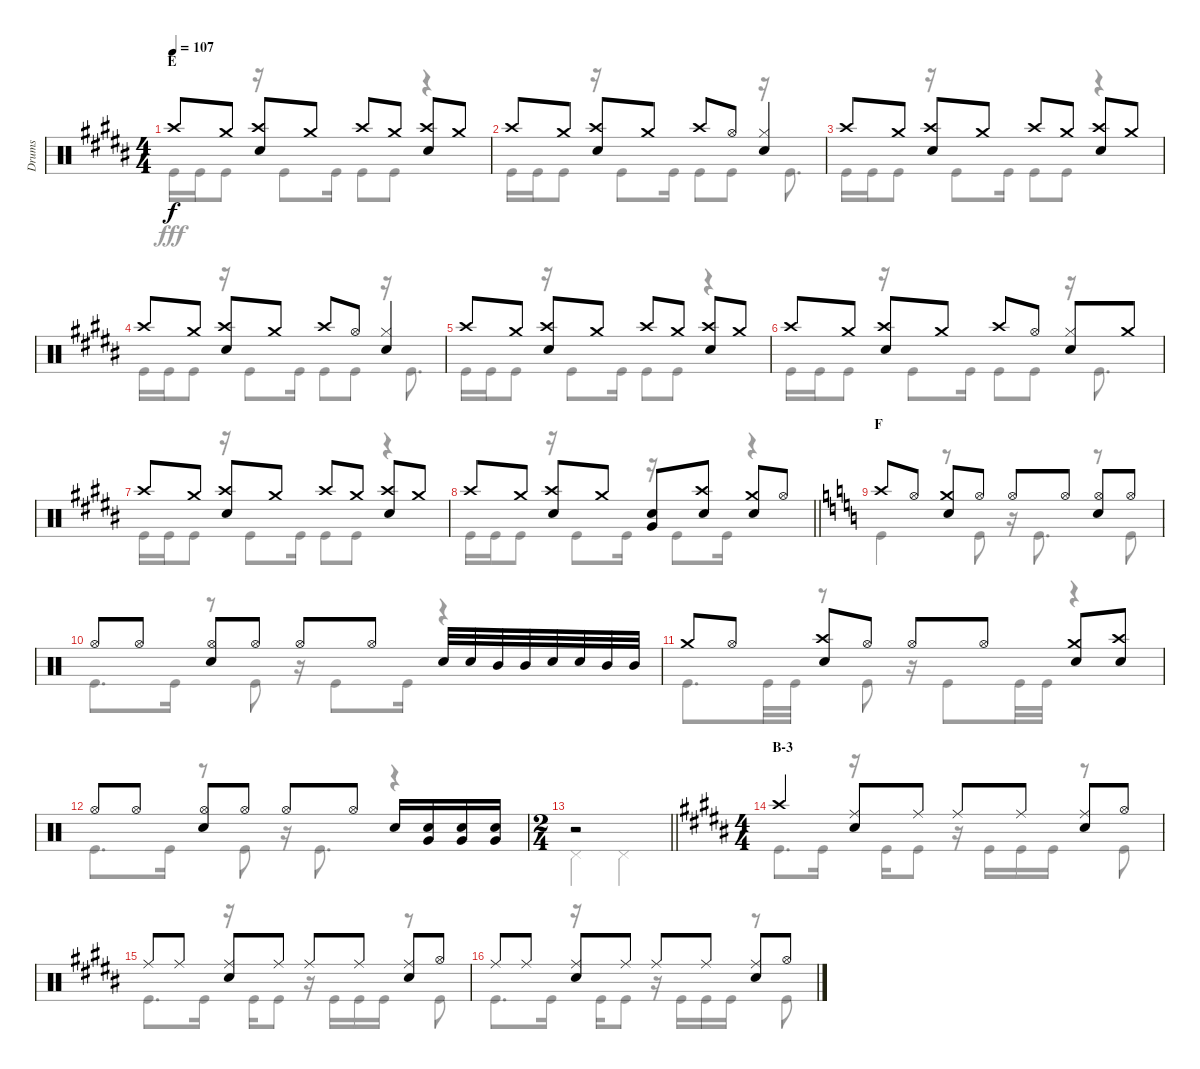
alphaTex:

\track ("Drums" "Drums") {instrument percussion}
\staff {score}
\articulation defaults
\voice
\ts (4 4)
\section ("" "E")
\tempo 107
\clef neutral
\ks b "Crash high (hit)".8{dy f} "Crash medium (hit)".8
("Crash high (hit)" "Snare (hit) 2").8 "Crash medium (hit)".8 "Crash high (hit)".8 "Crash medium (hit)".8 ("Crash high (hit)" "Snare (hit) 2").8 "Crash medium (hit)".8 |
"Crash high (hit)".8 "Crash medium (hit)".8 ("Crash high (hit)" "Snare (hit) 2").8 "Crash medium (hit)".8 "Crash high (hit)".8 "Hi-Hat (open)".8 ("Hi-Hat (closed)" "Snare (hit) 2").4 |
"Crash high (hit)".8 "Crash medium (hit)".8 ("Crash high (hit)" "Snare (hit) 2").8 "Crash medium (hit)".8 "Crash high (hit)".8 "Crash medium (hit)".8 ("Crash high (hit)" "Snare (hit) 2").8 "Crash medium (hit)".8 |
"Crash high (hit)".8 "Crash medium (hit)".8 ("Crash high (hit)" "Snare (hit) 2").8 "Crash medium (hit)".8 "Crash high (hit)".8 "Hi-Hat (open)".8 ("Hi-Hat (closed)" "Snare (hit) 2").4 |
"Crash high (hit)".8 "Crash medium (hit)".8 ("Crash high (hit)" "Snare (hit) 2").8 "Crash medium (hit)".8 "Crash high (hit)".8 "Crash medium (hit)".8 ("Crash high (hit)" "Snare (hit) 2").8 "Crash medium (hit)".8 |
"Crash high (hit)".8 "Crash medium (hit)".8 ("Crash high (hit)" "Snare (hit) 2").8 "Crash medium (hit)".8 "Crash high (hit)".8 "Hi-Hat (open)".8 ("Hi-Hat (closed)" "Snare (hit) 2").8 "Crash medium (hit)".8 |
"Crash high (hit)".8 "Crash medium (hit)".8 ("Crash high (hit)" "Snare (hit) 2").8 "Crash medium (hit)".8 "Crash high (hit)".8 "Crash medium (hit)".8 ("Crash high (hit)" "Snare (hit) 2").8 "Crash medium (hit)".8 |
\barLineRight lightlight "Crash high (hit)".8 "Crash medium (hit)".8
("Crash high (hit)" "Snare (hit) 2").8 "Crash medium (hit)".8 ("Snare (hit) 2" "Very Low Tom (hit)").8 ("Crash high (hit)" "Snare (hit) 2").8 ("Crash medium (hit)" "Snare (hit) 2").8 "Hi-Hat (open)".8 |
\section ("" "F")
\ks c "Crash high (hit)".8 "Hi-Hat (open)".8
("Crash medium (hit)" "Snare (hit) 2").8 "Hi-Hat (open)".8 "Hi-Hat (open)".8 "Hi-Hat (open)".8 ("Hi-Hat (open)" "Snare (hit) 2").8 "Hi-Hat (open)".8 |
"Hi-Hat (open)".8 "Hi-Hat (open)".8 ("Hi-Hat (open)" "Snare (hit) 2").8 "Hi-Hat (open)".8 "Hi-Hat (open)".8 "Hi-Hat (open)".8 "Snare (hit) 2".32 "Snare (hit) 2".32 "Mid Tom (hit)".32 "Mid Tom (hit)".32 "Snare (hit) 2".32 "Snare (hit) 2".32 "Mid Tom (hit)".32 "Mid Tom (hit)".32 |
"Crash medium (hit)".8 "Hi-Hat (open)".8 ("Crash high (hit)" "Snare (hit) 2").8 "Hi-Hat (open)".8 "Hi-Hat (open)".8 "Hi-Hat (open)".8 ("Crash medium (hit)" "Snare (hit) 2").8 ("Crash high (hit)" "Snare (hit) 2").8 |
"Hi-Hat (open)".8 "Hi-Hat (open)".8 ("Hi-Hat (open)" "Snare (hit) 2").8 "Hi-Hat (open)".8 "Hi-Hat (open)".8 "Hi-Hat (open)".8 "Snare (hit) 2".16 ("Snare (hit) 2" "Very Low Tom (hit)").16 ("Snare (hit) 2" "Very Low Tom (hit)").16 ("Snare (hit) 2" "Very Low Tom (hit)").16 |
\ts (2 4)
\barLineRight lightlight
r.2 |
\ts (4 4)
\section ("" "B-3")
\ks b "Crash high (hit)".4
("Ride (middle)" "Snare (hit) 2").8 "Ride (middle)".8 "Ride (middle)".8 "Ride (middle)".8 ("Ride (middle)" "Snare (hit) 2").8 "Hi-Hat (open)".8 |
"Ride (middle)".8 "Ride (middle)".8 ("Ride (middle)" "Snare (hit) 2").8 "Ride (middle)".8 "Ride (middle)".8 "Ride (middle)".8 ("Ride (middle)" "Snare (hit) 2").8 "Hi-Hat (open)".8 |
"Ride (middle)".8 "Ride (middle)".8 ("Ride (middle)" "Snare (hit) 2").8 "Ride (middle)".8 "Ride (middle)".8 "Ride (middle)".8 ("Ride (middle)" "Snare (hit) 2").8 "Hi-Hat (open)".8
\voice
\clef neutral
\ottava regular
\simile none
\ks b "Kick (hit)".16{dy fff} "Kick (hit)".16 "Kick (hit)".8
r.16 "Kick (hit)".8 "Kick (hit)".16 "Kick (hit)".8 "Kick (hit)".8 r.4 |
"Kick (hit)".16 "Kick (hit)".16 "Kick (hit)".8 r.16 "Kick (hit)".8 "Kick (hit)".16 "Kick (hit)".8 "Kick (hit)".8 r.16 "Kick (hit)".8{d} |
"Kick (hit)".16 "Kick (hit)".16 "Kick (hit)".8 r.16 "Kick (hit)".8 "Kick (hit)".16 "Kick (hit)".8 "Kick (hit)".8 r.4 |
"Kick (hit)".16 "Kick (hit)".16 "Kick (hit)".8 r.16 "Kick (hit)".8 "Kick (hit)".16 "Kick (hit)".8 "Kick (hit)".8 r.16 "Kick (hit)".8{d} |
"Kick (hit)".16 "Kick (hit)".16 "Kick (hit)".8 r.16 "Kick (hit)".8 "Kick (hit)".16 "Kick (hit)".8 "Kick (hit)".8 r.4 |
"Kick (hit)".16 "Kick (hit)".16 "Kick (hit)".8 r.16 "Kick (hit)".8 "Kick (hit)".16 "Kick (hit)".8 "Kick (hit)".8 r.16 "Kick (hit)".8{d} |
"Kick (hit)".16 "Kick (hit)".16 "Kick (hit)".8 r.16 "Kick (hit)".8 "Kick (hit)".16 "Kick (hit)".8 "Kick (hit)".8 r.4 |
\barLineRight lightlight "Kick (hit)".16 "Kick (hit)".16 "Kick (hit)".8
r.16 "Kick (hit)".8 "Kick (hit)".16 r.16 "Kick (hit)".8 "Kick (hit)".16 r.4 |
\ks c "Kick (hit)".4
r.8 "Kick (hit)".8 r.16 "Kick (hit)".8{d} r.8 "Kick (hit)".8 |
"Kick (hit)".8{d} "Kick (hit)".16 r.8 "Kick (hit)".8 r.16 "Kick (hit)".8 "Kick (hit)".16 r.4 |
"Kick (hit)".8{d} "Kick (hit)".32 "Kick (hit)".32 r.8 "Kick (hit)".8 r.16 "Kick (hit)".8 "Kick (hit)".32 "Kick (hit)".32 r.4 |
"Kick (hit)".8{d} "Kick (hit)".16 r.8 "Kick (hit)".8 r.16 "Kick (hit)".8{d} r.4 |
\barLineRight lightlight "Pedal Hi-Hat (hit)".4 "Pedal Hi-Hat (hit)".4
|
\ks b "Kick (hit)".8{d} "Kick (hit)".16
r.16 "Kick (hit)".16 "Kick (hit)".8 r.16 "Kick (hit)".16 "Kick (hit)".16 "Kick (hit)".16 r.8 "Kick (hit)".8 |
"Kick (hit)".8{d} "Kick (hit)".16 r.16 "Kick (hit)".16 "Kick (hit)".8 r.16 "Kick (hit)".16 "Kick (hit)".16 "Kick (hit)".16 r.8 "Kick (hit)".8 |
"Kick (hit)".8{d} "Kick (hit)".16 r.16 "Kick (hit)".16 "Kick (hit)".8 r.16 "Kick (hit)".16 "Kick (hit)".16 "Kick (hit)".16 r.8 "Kick (hit)".8
